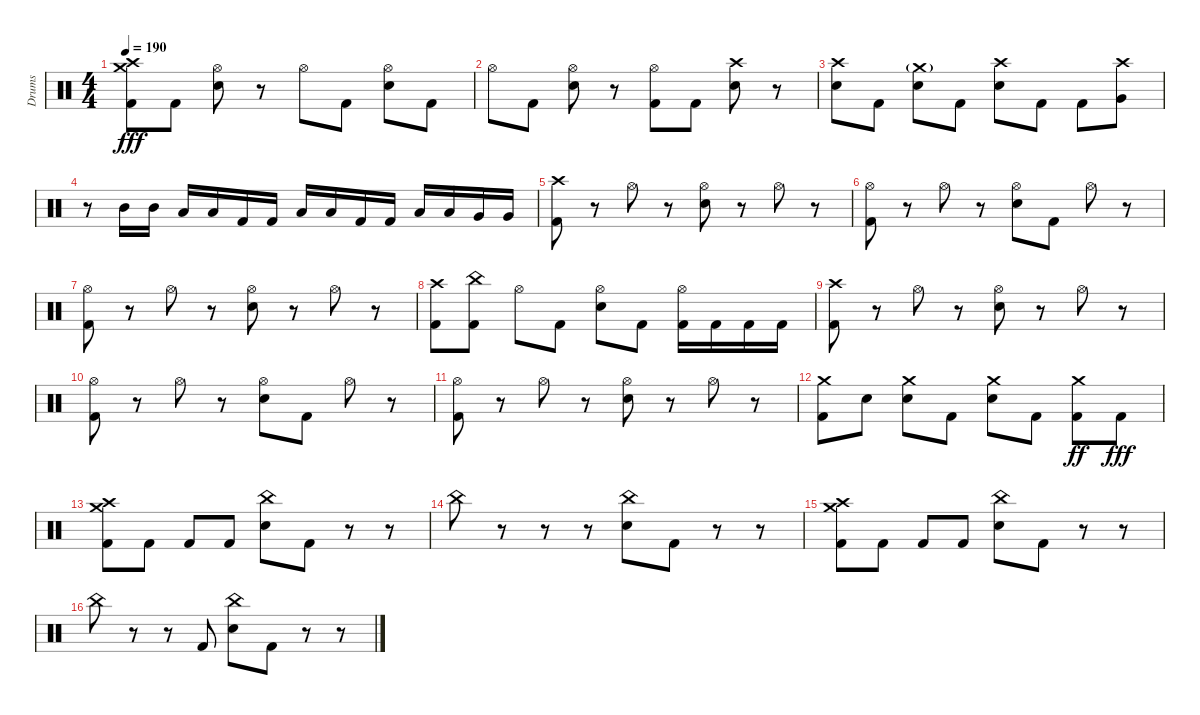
\track ("Drums" "Drums") {instrument percussion}
\staff {score}
\articulation defaults
\ts (4 4)
\tempo 190
\clef neutral
\ks c
("Crash medium (hit)" "Crash high (hit)" "Kick (hit) 2").8{dy fff} "Kick (hit) 2".8 ("Hi-Hat (open)" "Electric Snare (hit)").8 r.8 "Hi-Hat (open)".8 "Kick (hit) 2".8 ("Hi-Hat (open)" "Electric Snare (hit)").8 "Kick (hit) 2".8 |
"Hi-Hat (open)".8 "Kick (hit) 2".8 ("Hi-Hat (open)" "Electric Snare (hit)").8 r.8 ("Hi-Hat (open)" "Kick (hit) 2").8 "Kick (hit) 2".8 ("Crash high (hit)" "Electric Snare (hit)").8 r.8 |
("Crash high (hit)" "Electric Snare (hit)").8 "Kick (hit) 2".8 ("Crash medium (hit)"{g} "Electric Snare (hit)").8 "Kick (hit) 2".8 ("Crash high (hit)" "Electric Snare (hit)").8 "Kick (hit) 2".8 "Kick (hit) 2".8 ("Crash high (hit)" "Very Low Tom (hit)").8 |
r.8 "Mid Tom (hit)".16 "Mid Tom (hit)".16 "Low Tom (hit)".16 "Low Tom (hit)".16 "Kick (hit) 2".16 "Kick (hit) 2".16 "Low Tom (hit)".16 "Low Tom (hit)".16 "Kick (hit) 2".16 "Kick (hit) 2".16 "Low Tom (hit)".16 "Low Tom (hit)".16 "Very Low Tom (hit)".16 "Very Low Tom (hit)".16 |
("Crash high (hit)" "Kick (hit) 2").8 r.8 "Hi-Hat (open)".8 r.8 ("Hi-Hat (open)" "Snare (hit) 2").8 r.8 "Hi-Hat (open)".8 r.8 |
("Hi-Hat (open)" "Kick (hit) 2").8 r.8 "Hi-Hat (open)".8 r.8 ("Hi-Hat (open)" "Snare (hit) 2").8 "Kick (hit) 2".8 "Hi-Hat (open)".8 r.8 |
("Hi-Hat (open)" "Kick (hit) 2").8 r.8 "Hi-Hat (open)".8 r.8 ("Hi-Hat (open)" "Snare (hit) 2").8 r.8 "Hi-Hat (open)".8 r.8 |
("Crash high (hit)" "Kick (hit) 2").8 ("China (hit)" "Kick (hit) 2").8 "Hi-Hat (open)".8 "Kick (hit) 2".8 ("Hi-Hat (open)" "Snare (hit) 2").8 "Kick (hit) 2".8 ("Hi-Hat (open)" "Kick (hit) 2").16 "Kick (hit) 2".16 "Kick (hit) 2".16 "Kick (hit) 2".16 |
("Crash high (hit)" "Kick (hit) 2").8 r.8 "Hi-Hat (open)".8 r.8 ("Hi-Hat (open)" "Snare (hit) 2").8 r.8 "Hi-Hat (open)".8 r.8 |
("Hi-Hat (open)" "Kick (hit) 2").8 r.8 "Hi-Hat (open)".8 r.8 ("Hi-Hat (open)" "Snare (hit) 2").8 "Kick (hit) 2".8 "Hi-Hat (open)".8 r.8 |
("Hi-Hat (open)" "Kick (hit) 2").8 r.8 "Hi-Hat (open)".8 r.8 ("Hi-Hat (open)" "Snare (hit) 2").8 r.8 "Hi-Hat (open)".8 r.8 |
("Crash medium (hit)" "Kick (hit) 2").8 "Electric Snare (hit)".8 ("Crash medium (hit)" "Electric Snare (hit)").8 "Kick (hit) 2".8 ("Crash medium (hit)" "Electric Snare (hit)").8 "Kick (hit) 2".8 ("Crash medium (hit)" "Kick (hit) 2").8{dy ff} "Kick (hit) 2".8{dy fff} |
("Crash medium (hit)" "Crash high (hit)" "Kick (hit) 2").8 "Kick (hit) 2".8 "Kick (hit) 2".8 "Kick (hit) 2".8 ("China (hit)" "Electric Snare (hit)").8 "Kick (hit) 2".8 r.8 r.8 |
"China (hit)".8 r.8 r.8 r.8 ("China (hit)" "Electric Snare (hit)").8 "Kick (hit) 2".8 r.8 r.8 |
("Crash medium (hit)" "Crash high (hit)" "Kick (hit) 2").8 "Kick (hit) 2".8 "Kick (hit) 2".8 "Kick (hit) 2".8 ("China (hit)" "Electric Snare (hit)").8 "Kick (hit) 2".8 r.8 r.8 |
"China (hit)".8 r.8 r.8 "Kick (hit) 2".8 ("China (hit)" "Electric Snare (hit)").8 "Kick (hit) 2".8 r.8 r.8
